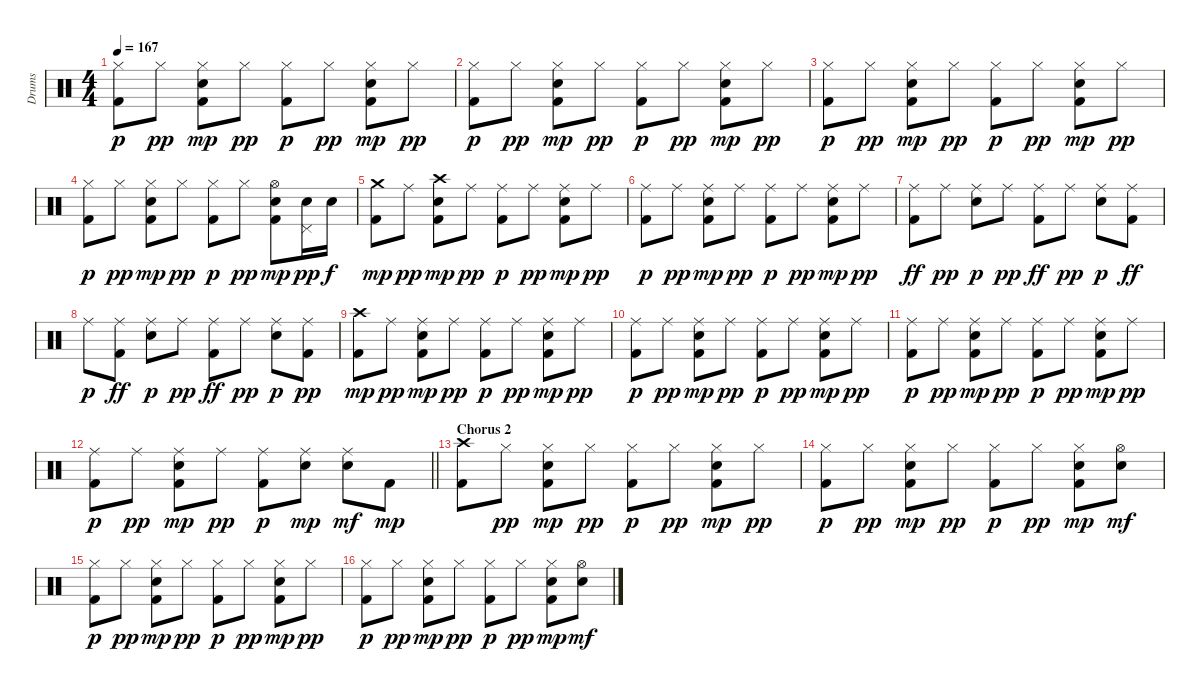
\track ("Drums" "Drums") {instrument percussion}
\staff {score}
\articulation defaults
\ts (4 4)
\tempo 167
\clef neutral
\ks aminor
("Hi-Hat (closed)" "Kick (hit) 2").8{dy p} "Hi-Hat (closed)".8{dy pp} ("Hi-Hat (closed)" "Electric Snare (hit)" "Kick (hit) 2").8{dy mp} "Hi-Hat (closed)".8{dy pp} ("Hi-Hat (closed)" "Kick (hit) 2").8{dy p} "Hi-Hat (closed)".8{dy pp} ("Hi-Hat (closed)" "Electric Snare (hit)" "Kick (hit) 2").8{dy mp} "Hi-Hat (closed)".8{dy pp} |
("Hi-Hat (closed)" "Kick (hit) 2").8{dy p} "Hi-Hat (closed)".8{dy pp} ("Hi-Hat (closed)" "Electric Snare (hit)" "Kick (hit) 2").8{dy mp} "Hi-Hat (closed)".8{dy pp} ("Hi-Hat (closed)" "Kick (hit) 2").8{dy p} "Hi-Hat (closed)".8{dy pp} ("Hi-Hat (closed)" "Electric Snare (hit)" "Kick (hit) 2").8{dy mp} "Hi-Hat (closed)".8{dy pp} |
("Hi-Hat (closed)" "Kick (hit) 2").8{dy p} "Hi-Hat (closed)".8{dy pp} ("Hi-Hat (closed)" "Electric Snare (hit)" "Kick (hit) 2").8{dy mp} "Hi-Hat (closed)".8{dy pp} ("Hi-Hat (closed)" "Kick (hit) 2").8{dy p} "Hi-Hat (closed)".8{dy pp} ("Hi-Hat (closed)" "Electric Snare (hit)" "Kick (hit) 2").8{dy mp} "Hi-Hat (closed)".8{dy pp} |
("Hi-Hat (closed)" "Kick (hit) 2").8{dy p} "Hi-Hat (closed)".8{dy pp} ("Hi-Hat (closed)" "Electric Snare (hit)" "Kick (hit) 2").8{dy mp} "Hi-Hat (closed)".8{dy pp} ("Hi-Hat (closed)" "Kick (hit) 2").8{dy p} "Hi-Hat (closed)".8{dy pp} ("Hi-Hat (open)" "Electric Snare (hit)" "Kick (hit) 2").8{dy mp} ("Electric Snare (hit)" "Pedal Hi-Hat (hit)").16{dy pp} "Electric Snare (hit)".16{dy f} |
("Crash medium (hit)" "Kick (hit) 2").8{dy mp} "Ride (middle)".8{dy pp} ("Kick (hit) 2" "Electric Snare (hit)" "Crash high (hit)").8{dy mp} "Ride (middle)".8{dy pp} ("Ride (middle)" "Kick (hit) 2").8{dy p} "Ride (middle)".8{dy pp} ("Ride (middle)" "Kick (hit) 2" "Electric Snare (hit)").8{dy mp} "Ride (middle)".8{dy pp} |
("Ride (middle)" "Kick (hit) 2").8{dy p} "Ride (middle)".8{dy pp} ("Ride (middle)" "Kick (hit) 2" "Electric Snare (hit)").8{dy mp} "Ride (middle)".8{dy pp} ("Ride (middle)" "Kick (hit) 2").8{dy p} "Ride (middle)".8{dy pp} ("Ride (middle)" "Kick (hit) 2" "Electric Snare (hit)").8{dy mp} "Ride (middle)".8{dy pp} |
("Ride (middle)" "Kick (hit) 2").8{dy ff} "Ride (middle)".8{dy pp} ("Ride (middle)" "Electric Snare (hit)").8{dy p} "Ride (middle)".8{dy pp} ("Ride (middle)" "Kick (hit) 2").8{dy ff} "Ride (middle)".8{dy pp} ("Ride (middle)" "Electric Snare (hit)").8{dy p} ("Ride (middle)" "Kick (hit) 2").8{dy ff} |
"Ride (middle)".8{dy p} ("Ride (middle)" "Kick (hit) 2").8{dy ff} ("Ride (middle)" "Electric Snare (hit)").8{dy p} "Ride (middle)".8{dy pp} ("Ride (middle)" "Kick (hit) 2").8{dy ff} "Ride (middle)".8{dy pp} ("Ride (middle)" "Electric Snare (hit)").8{dy p} ("Ride (middle)" "Kick (hit) 2").8{dy pp} |
("Crash high (hit)" "Kick (hit) 2").8{dy mp} "Ride (middle)".8{dy pp} ("Ride (middle)" "Kick (hit) 2" "Electric Snare (hit)").8{dy mp} "Ride (middle)".8{dy pp} ("Ride (middle)" "Kick (hit) 2").8{dy p} "Ride (middle)".8{dy pp} ("Ride (middle)" "Kick (hit) 2" "Electric Snare (hit)").8{dy mp} "Ride (middle)".8{dy pp} |
("Ride (middle)" "Kick (hit) 2").8{dy p} "Ride (middle)".8{dy pp} ("Ride (middle)" "Kick (hit) 2" "Electric Snare (hit)").8{dy mp} "Ride (middle)".8{dy pp} ("Ride (middle)" "Kick (hit) 2").8{dy p} "Ride (middle)".8{dy pp} ("Ride (middle)" "Kick (hit) 2" "Electric Snare (hit)").8{dy mp} "Ride (middle)".8{dy pp} |
("Ride (middle)" "Kick (hit) 2").8{dy p} "Ride (middle)".8{dy pp} ("Ride (middle)" "Kick (hit) 2" "Electric Snare (hit)").8{dy mp} "Ride (middle)".8{dy pp} ("Ride (middle)" "Kick (hit) 2").8{dy p} "Ride (middle)".8{dy pp} ("Ride (middle)" "Kick (hit) 2" "Electric Snare (hit)").8{dy mp} "Ride (middle)".8{dy pp} |
\barLineRight lightlight
("Ride (middle)" "Kick (hit) 2").8{dy p} "Ride (middle)".8{dy pp} ("Ride (middle)" "Kick (hit) 2" "Electric Snare (hit)").8{dy mp} "Ride (middle)".8{dy pp} ("Ride (middle)" "Kick (hit) 2").8{dy p} ("Ride (middle)" "Electric Snare (hit)").8{dy mp} ("Electric Snare (hit)" "Ride (middle)").8{dy mf} "Kick (hit) 2".8{dy mp} |
\section ("" "Chorus 2")
("Kick (hit) 2" "Crash high (hit)").8 "Hi-Hat (closed)".8{dy pp} ("Hi-Hat (closed)" "Electric Snare (hit)" "Kick (hit) 2").8{dy mp} "Hi-Hat (closed)".8{dy pp} ("Hi-Hat (closed)" "Kick (hit) 2").8{dy p} "Hi-Hat (closed)".8{dy pp} ("Hi-Hat (closed)" "Electric Snare (hit)" "Kick (hit) 2").8{dy mp} "Hi-Hat (closed)".8{dy pp} |
("Hi-Hat (closed)" "Kick (hit) 2").8{dy p} "Hi-Hat (closed)".8{dy pp} ("Hi-Hat (closed)" "Electric Snare (hit)" "Kick (hit) 2").8{dy mp} "Hi-Hat (closed)".8{dy pp} ("Hi-Hat (closed)" "Kick (hit) 2").8{dy p} "Hi-Hat (closed)".8{dy pp} ("Hi-Hat (closed)" "Electric Snare (hit)" "Kick (hit) 2").8{dy mp} ("Hi-Hat (open)" "Electric Snare (hit)").8{dy mf} |
("Hi-Hat (closed)" "Kick (hit) 2").8{dy p} "Hi-Hat (closed)".8{dy pp} ("Hi-Hat (closed)" "Electric Snare (hit)" "Kick (hit) 2").8{dy mp} "Hi-Hat (closed)".8{dy pp} ("Hi-Hat (closed)" "Kick (hit) 2").8{dy p} "Hi-Hat (closed)".8{dy pp} ("Hi-Hat (closed)" "Electric Snare (hit)" "Kick (hit) 2").8{dy mp} "Hi-Hat (closed)".8{dy pp} |
("Hi-Hat (closed)" "Kick (hit) 2").8{dy p} "Hi-Hat (closed)".8{dy pp} ("Hi-Hat (closed)" "Electric Snare (hit)" "Kick (hit) 2").8{dy mp} "Hi-Hat (closed)".8{dy pp} ("Hi-Hat (closed)" "Kick (hit) 2").8{dy p} "Hi-Hat (closed)".8{dy pp} ("Hi-Hat (closed)" "Electric Snare (hit)" "Kick (hit) 2").8{dy mp} ("Hi-Hat (open)" "Electric Snare (hit)").8{dy mf}
